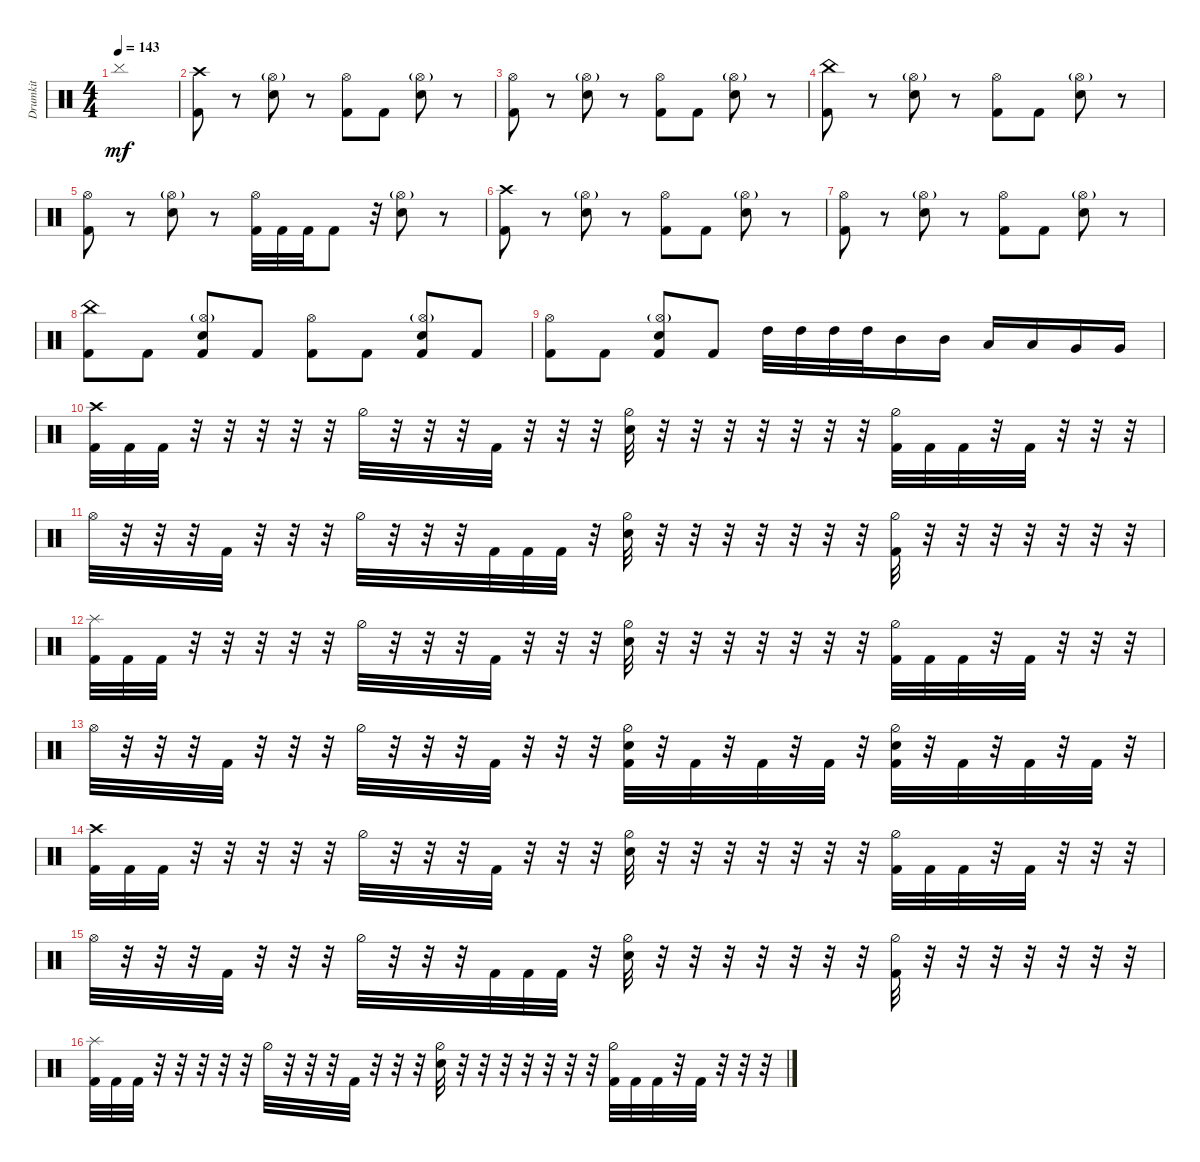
\track ("Drumkit" "Drumkit") {instrument percussion}
\staff {score}
\articulation defaults
\ts (4 4)
\tempo 143
\clef neutral
\ks c "Cymbal (hit)".1{dy mf}
|
("Crash high (hit)" "Kick (hit) 2").8 r.8 ("Hi-Hat (open)"{g} "Snare (hit) 2").8 r.8 ("Hi-Hat (open)" "Kick (hit) 2").8 "Kick (hit) 2".8 ("Hi-Hat (open)"{g} "Snare (hit) 2").8 r.8 |
("Hi-Hat (open)" "Kick (hit) 2").8 r.8 ("Hi-Hat (open)"{g} "Snare (hit) 2").8 r.8 ("Hi-Hat (open)" "Kick (hit) 2").8 "Kick (hit) 2".8 ("Hi-Hat (open)"{g} "Snare (hit) 2").8 r.8 |
("China (hit)" "Kick (hit) 2").8 r.8 ("Hi-Hat (open)"{g} "Snare (hit) 2").8 r.8 ("Hi-Hat (open)" "Kick (hit) 2").8 "Kick (hit) 2".8 ("Hi-Hat (open)"{g} "Snare (hit) 2").8 r.8 |
("Hi-Hat (open)" "Kick (hit) 2").8 r.8 ("Hi-Hat (open)"{g} "Snare (hit) 2").8 r.8 ("Hi-Hat (open)" "Kick (hit) 2").32 "Kick (hit) 2".32 "Kick (hit) 2".32 "Kick (hit) 2".8 r.32 ("Hi-Hat (open)"{g} "Snare (hit) 2").8 r.8 |
("Crash high (hit)" "Kick (hit) 2").8 r.8 ("Hi-Hat (open)"{g} "Snare (hit) 2").8 r.8 ("Hi-Hat (open)" "Kick (hit) 2").8 "Kick (hit) 2".8 ("Hi-Hat (open)"{g} "Snare (hit) 2").8 r.8 |
("Hi-Hat (open)" "Kick (hit) 2").8 r.8 ("Hi-Hat (open)"{g} "Snare (hit) 2").8 r.8 ("Hi-Hat (open)" "Kick (hit) 2").8 "Kick (hit) 2".8 ("Hi-Hat (open)"{g} "Snare (hit) 2").8 r.8 |
("China (hit)" "Kick (hit) 2").8 "Kick (hit) 2".8 ("Hi-Hat (open)"{g} "Kick (hit) 2" "Snare (hit) 2").8 "Kick (hit) 2".8 ("Hi-Hat (open)" "Kick (hit) 2").8 "Kick (hit) 2".8 ("Hi-Hat (open)"{g} "Kick (hit) 2" "Snare (hit) 2").8 "Kick (hit) 2".8 |
("Hi-Hat (open)" "Kick (hit) 2").8 "Kick (hit) 2".8 ("Hi-Hat (open)"{g} "Kick (hit) 2" "Snare (hit) 2").8 "Kick (hit) 2".8 "High Tom (hit)".32 "High Tom (hit)".32 "High Tom (hit)".32 "High Tom (hit)".32 "Mid Tom (hit)".16 "Mid Tom (hit)".16 "Low Tom (hit)".16 "Low Tom (hit)".16 "Very Low Tom (hit)".16 "Very Low Tom (hit)".16 |
("Crash high (hit)" "Kick (hit) 2").32 "Kick (hit) 2".32 "Kick (hit) 2".32 r.32 r.32 r.32 r.32 r.32 "Hi-Hat (half)".32 r.32 r.32 r.32 "Kick (hit) 2".32 r.32 r.32 r.32 ("Hi-Hat (half)" "Snare (hit) 2").32 r.32 r.32 r.32 r.32 r.32 r.32 r.32 ("Kick (hit) 2" "Hi-Hat (half)").32 "Kick (hit) 2".32 "Kick (hit) 2".32 r.32 "Kick (hit) 2".32 r.32 r.32 r.32 |
"Hi-Hat (open)".32 r.32 r.32 r.32 "Kick (hit) 2".32 r.32 r.32 r.32 "Hi-Hat (half)".32 r.32 r.32 r.32 "Kick (hit) 2".32 "Kick (hit) 2".32 "Kick (hit) 2".32 r.32 ("Hi-Hat (half)" "Snare (hit) 2").32 r.32 r.32 r.32 r.32 r.32 r.32 r.32 ("Hi-Hat (half)" "Kick (hit) 2").32 r.32 r.32 r.32 r.32 r.32 r.32 r.32 |
("Splash (hit)" "Kick (hit) 2").32 "Kick (hit) 2".32 "Kick (hit) 2".32 r.32 r.32 r.32 r.32 r.32 "Hi-Hat (half)".32 r.32 r.32 r.32 "Kick (hit) 2".32 r.32 r.32 r.32 ("Hi-Hat (half)" "Snare (hit) 2").32 r.32 r.32 r.32 r.32 r.32 r.32 r.32 ("Kick (hit) 2" "Hi-Hat (half)").32 "Kick (hit) 2".32 "Kick (hit) 2".32 r.32 "Kick (hit) 2".32 r.32 r.32 r.32 |
"Hi-Hat (open)".32 r.32 r.32 r.32 "Kick (hit) 2".32 r.32 r.32 r.32 "Hi-Hat (half)".32 r.32 r.32 r.32 "Kick (hit) 2".32 r.32 r.32 r.32 ("Hi-Hat (half)" "Kick (hit) 2" "Snare (hit) 2").32 r.32 "Kick (hit) 2".32 r.32 "Kick (hit) 2".32 r.32 "Kick (hit) 2".32 r.32 ("Hi-Hat (half)" "Kick (hit) 2" "Snare (hit) 2").32 r.32 "Kick (hit) 2".32 r.32 "Kick (hit) 2".32 r.32 "Kick (hit) 2".32 r.32 |
("Crash high (hit)" "Kick (hit) 2").32 "Kick (hit) 2".32 "Kick (hit) 2".32 r.32 r.32 r.32 r.32 r.32 "Hi-Hat (half)".32 r.32 r.32 r.32 "Kick (hit) 2".32 r.32 r.32 r.32 ("Hi-Hat (half)" "Snare (hit) 2").32 r.32 r.32 r.32 r.32 r.32 r.32 r.32 ("Kick (hit) 2" "Hi-Hat (half)").32 "Kick (hit) 2".32 "Kick (hit) 2".32 r.32 "Kick (hit) 2".32 r.32 r.32 r.32 |
"Hi-Hat (open)".32 r.32 r.32 r.32 "Kick (hit) 2".32 r.32 r.32 r.32 "Hi-Hat (half)".32 r.32 r.32 r.32 "Kick (hit) 2".32 "Kick (hit) 2".32 "Kick (hit) 2".32 r.32 ("Hi-Hat (half)" "Snare (hit) 2").32 r.32 r.32 r.32 r.32 r.32 r.32 r.32 ("Hi-Hat (half)" "Kick (hit) 2").32 r.32 r.32 r.32 r.32 r.32 r.32 r.32 |
("Splash (hit)" "Kick (hit) 2").32 "Kick (hit) 2".32 "Kick (hit) 2".32 r.32 r.32 r.32 r.32 r.32 "Hi-Hat (half)".32 r.32 r.32 r.32 "Kick (hit) 2".32 r.32 r.32 r.32 ("Hi-Hat (half)" "Snare (hit) 2").32 r.32 r.32 r.32 r.32 r.32 r.32 r.32 ("Kick (hit) 2" "Hi-Hat (half)").32 "Kick (hit) 2".32 "Kick (hit) 2".32 r.32 "Kick (hit) 2".32 r.32 r.32 r.32
